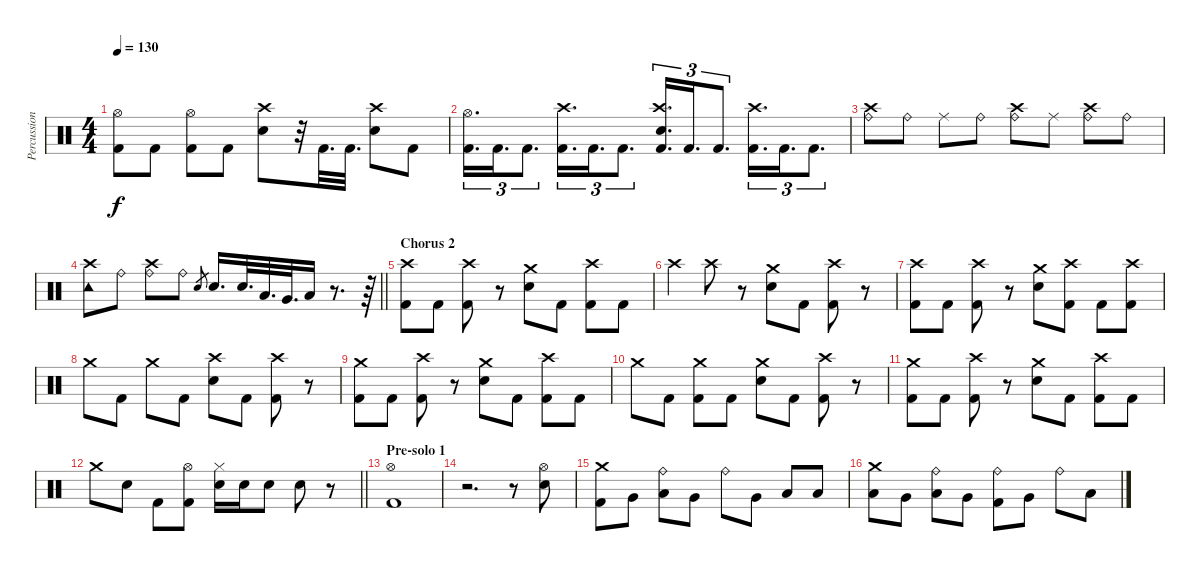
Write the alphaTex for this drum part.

\track ("Percussion" "Percussion") {instrument percussion}
\staff {score}
\articulation defaults
\ts (4 4)
\tempo 130
\clef neutral
\ks c
("Hi-Hat (open)" "Kick (hit) 2").8{dy f volume 13} "Kick (hit) 2".8 ("Hi-Hat (open)" "Kick (hit) 2").8 "Kick (hit) 2".8 ("Crash high (hit)" "Electric Snare (hit)").8 r.32 "Kick (hit) 2".32{d} "Kick (hit) 2".32{d} ("Crash high (hit)" "Electric Snare (hit)").8 "Kick (hit) 2".8 |
("Hi-Hat (open)" "Kick (hit) 2").16{d tu (3 2)} "Kick (hit) 2".16{d tu (3 2)} "Kick (hit) 2".8{d tu (3 2)} ("Crash high (hit)" "Kick (hit) 2").16{d tu (3 2)} "Kick (hit) 2".16{d tu (3 2)} "Kick (hit) 2".8{d tu (3 2)} ("Crash high (hit)" "Electric Snare (hit)" "Kick (hit) 2").16{d tu (3 2)} "Kick (hit) 2".16{d tu (3 2)} "Kick (hit) 2".8{d tu (3 2)} ("Crash high (hit)" "Kick (hit) 2").16{d tu (3 2)} "Kick (hit) 2".16{d tu (3 2)} "Kick (hit) 2".8{d tu (3 2)} |
("Crash high (hit)" "Ride (bell)").8 "Ride (bell)".8{volume 10} "Ride (middle)".8{volume 16} "Ride (bell)".8 ("Crash high (hit)" "Ride (bell)").8{volume 11} "Ride (middle)".8{volume 16} ("Crash high (hit)" "Ride (bell)").8 "Ride (bell)".8{volume 11} |
\barLineRight lightlight
("Crash high (hit)" "Tambourine (hit)").8{volume 16} "Ride (bell)".8 ("Crash high (hit)" "Ride (bell)").8 "Ride (bell)".8 "Electric Snare (hit)".8{gr} "Electric Snare (hit)".16{d} "Electric Snare (hit)".32{d} "Low Tom (hit)".32{d} "Very Low Tom (hit)".32{d} "Low Floor Tom (hit)".16 r.8{d} r.64 |
\section ("" "Chorus 2")
("Kick (hit) 2" "Crash high (hit)").8 "Kick (hit) 2".8 ("Kick (hit) 2" "Crash high (hit)").8 r.8 ("Electric Snare (hit)" "Crash medium (hit)").8 "Kick (hit) 2".8 ("Kick (hit) 2" "Crash high (hit)").8 "Kick (hit) 2".8 |
"Crash high (hit)".4 "Crash high (hit)".8 r.8 ("Electric Snare (hit)" "Crash medium (hit)").8 "Kick (hit) 2".8 ("Kick (hit) 2" "Crash high (hit)").8 r.8 |
("Kick (hit) 2" "Crash high (hit)").8 "Kick (hit) 2".8 ("Kick (hit) 2" "Crash high (hit)").8 r.8 ("Electric Snare (hit)" "Crash medium (hit)").8 ("Kick (hit) 2" "Crash high (hit)").8 "Kick (hit) 2".8 ("Kick (hit) 2" "Crash high (hit)").8 |
"Crash medium (hit)".8 "Kick (hit) 2".8 "Crash medium (hit)".8 "Kick (hit) 2".8 ("Electric Snare (hit)" "Crash high (hit)").8 "Kick (hit) 2".8 ("Kick (hit) 2" "Crash high (hit)").8 r.8 |
("Kick (hit) 2" "Crash medium (hit)").8 "Kick (hit) 2".8 ("Kick (hit) 2" "Crash high (hit)").8 r.8 ("Electric Snare (hit)" "Crash medium (hit)").8 "Kick (hit) 2".8 ("Kick (hit) 2" "Crash high (hit)").8 "Kick (hit) 2".8 |
"Crash medium (hit)".8 "Kick (hit) 2".8 ("Kick (hit) 2" "Crash medium (hit)").8 "Kick (hit) 2".8 ("Electric Snare (hit)" "Crash medium (hit)").8 "Kick (hit) 2".8 ("Kick (hit) 2" "Crash high (hit)").8 r.8 |
("Kick (hit) 2" "Crash medium (hit)").8 "Kick (hit) 2".8 ("Kick (hit) 2" "Crash high (hit)").8 r.8 ("Electric Snare (hit)" "Crash medium (hit)").8 "Kick (hit) 2".8 ("Kick (hit) 2" "Crash high (hit)").8 "Kick (hit) 2".8 |
\barLineRight lightlight "Crash medium (hit)".8 "Electric Snare (hit)".8 "Kick (hit) 2".8
("Kick (hit) 2" "Hi-Hat (open)").8 ("Electric Snare (hit)" "Hi-Hat (closed)").16 "Electric Snare (hit)".16 "Electric Snare (hit)".8 "Electric Snare (hit)".8 r.8 |
\section ("" "Pre-solo 1")
("Hi-Hat (open)" "Kick (hit) 2").1 |
r.2{d} r.8 ("Hi-Hat (open)" "Electric Snare (hit)").8 |
("Crash medium (hit)" "Kick (hit) 2").8 "Very Low Tom (hit)".8 ("Ride (bell)" "Low Tom (hit)").8 "Very Low Tom (hit)".8 "Ride (bell)".8 "Very Low Tom (hit)".8 "Low Tom (hit)".8 "Low Tom (hit)".8 |
("Crash medium (hit)" "Low Tom (hit)").8 "Very Low Tom (hit)".8 ("Ride (bell)" "Low Floor Tom (hit)").8 "Very Low Tom (hit)".8 ("Ride (bell)" "Kick (hit) 2").8 "Very Low Tom (hit)".8 "Ride (bell)".8 "Low Tom (hit)".8
